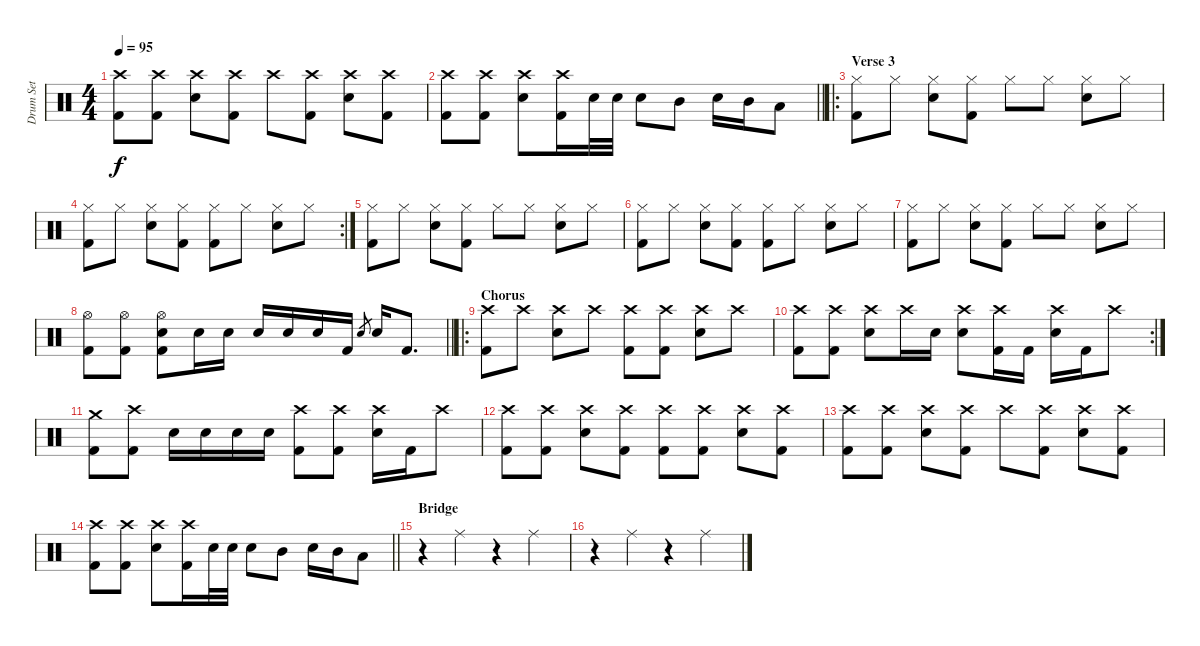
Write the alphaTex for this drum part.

\track ("Drum Set" "Drum Set") {instrument percussion}
\staff {score}
\articulation defaults
\ts (4 4)
\tempo 95
\clef neutral
\ks c
("Crash high (hit)" "Kick (hit) 2").8{dy f} ("Crash high (hit)" "Kick (hit) 2").8 ("Crash high (hit)" "Snare (hit) 2").8 ("Crash high (hit)" "Kick (hit) 2").8 "Crash high (hit)".8 ("Crash high (hit)" "Kick (hit) 2").8 ("Crash high (hit)" "Snare (hit) 2").8 ("Crash high (hit)" "Kick (hit) 2").8 |
\barLineRight lightlight
("Crash high (hit)" "Kick (hit) 2").8 ("Crash high (hit)" "Kick (hit) 2").8 ("Crash high (hit)" "Snare (hit) 2").8 ("Crash high (hit)" "Kick (hit) 2").16 "Snare (hit) 2".32 "Snare (hit) 2".32 "Snare (hit) 2".8 "Mid Tom (hit)".8 "Snare (hit) 2".16 "Mid Tom (hit)".16 "Low Tom (hit)".8 |
\ro
\section ("" "Verse 3")
("Hi-Hat (closed)" "Kick (hit) 2").8 "Hi-Hat (closed)".8 ("Hi-Hat (closed)" "Snare (hit) 2").8 ("Hi-Hat (closed)" "Kick (hit) 2").8 "Hi-Hat (closed)".8 "Hi-Hat (closed)".8 ("Hi-Hat (closed)" "Snare (hit) 2").8 "Hi-Hat (closed)".8 |
\rc 2
("Hi-Hat (closed)" "Kick (hit) 2").8 "Hi-Hat (closed)".8 ("Hi-Hat (closed)" "Snare (hit) 2").8 ("Hi-Hat (closed)" "Kick (hit) 2").8 ("Hi-Hat (closed)" "Kick (hit) 2").8 "Hi-Hat (closed)".8 ("Hi-Hat (closed)" "Snare (hit) 2").8 "Hi-Hat (closed)".8 |
("Hi-Hat (closed)" "Kick (hit) 2").8 "Hi-Hat (closed)".8 ("Hi-Hat (closed)" "Snare (hit) 2").8 ("Hi-Hat (closed)" "Kick (hit) 2").8 "Hi-Hat (closed)".8 "Hi-Hat (closed)".8 ("Hi-Hat (closed)" "Snare (hit) 2").8 "Hi-Hat (closed)".8 |
("Hi-Hat (closed)" "Kick (hit) 2").8 "Hi-Hat (closed)".8 ("Hi-Hat (closed)" "Snare (hit) 2").8 ("Hi-Hat (closed)" "Kick (hit) 2").8 ("Hi-Hat (closed)" "Kick (hit) 2").8 "Hi-Hat (closed)".8 ("Hi-Hat (closed)" "Snare (hit) 2").8 "Hi-Hat (closed)".8 |
("Hi-Hat (closed)" "Kick (hit) 2").8 "Hi-Hat (closed)".8 ("Hi-Hat (closed)" "Snare (hit) 2").8 ("Hi-Hat (closed)" "Kick (hit) 2").8 "Hi-Hat (closed)".8 "Hi-Hat (closed)".8 ("Hi-Hat (closed)" "Snare (hit) 2").8 "Hi-Hat (closed)".8 |
\barLineRight lightlight
("Hi-Hat (open)" "Kick (hit) 2").8 ("Hi-Hat (open)" "Kick (hit) 2").8 ("Hi-Hat (open)" "Snare (hit) 2" "Kick (hit) 2").8 "Snare (hit) 2".16 "Snare (hit) 2".16 "Snare (hit) 2".16 "Snare (hit) 2".16 "Snare (hit) 2".16 "Kick (hit) 2".16 "Snare (hit) 2".8{gr} "Snare (hit) 2".16 "Kick (hit) 2".8{d} |
\ro
\section ("" "Chorus")
("Crash high (hit)" "Kick (hit) 2").8 "Crash high (hit)".8 ("Crash high (hit)" "Snare (hit) 2").8 "Crash high (hit)".8 ("Crash high (hit)" "Kick (hit) 2").8 ("Crash high (hit)" "Kick (hit) 2").8 ("Crash high (hit)" "Snare (hit) 2").8 "Crash high (hit)".8 |
\rc 2
("Crash high (hit)" "Kick (hit) 2").8 ("Crash high (hit)" "Kick (hit) 2").8 ("Crash high (hit)" "Snare (hit) 2").8 "Crash high (hit)".16 "Snare (hit) 2".16 ("Crash high (hit)" "Snare (hit) 2").8 ("Crash high (hit)" "Kick (hit) 2").16 "Kick (hit) 2".16 ("Crash high (hit)" "Snare (hit) 2").16 "Kick (hit) 2".16 "Crash high (hit)".8 |
("Crash medium (hit)" "Kick (hit) 2").8 ("Crash high (hit)" "Kick (hit) 2").8 "Snare (hit) 2".16 "Snare (hit) 2".16 "Snare (hit) 2".16 "Snare (hit) 2".16 ("Crash high (hit)" "Kick (hit) 2").8 ("Crash high (hit)" "Kick (hit) 2").8 ("Crash high (hit)" "Snare (hit) 2").16 "Kick (hit) 2".16 "Crash high (hit)".8 |
("Crash high (hit)" "Kick (hit) 2").8 ("Crash high (hit)" "Kick (hit) 2").8 ("Crash high (hit)" "Snare (hit) 2").8 ("Crash high (hit)" "Kick (hit) 2").8 ("Crash high (hit)" "Kick (hit) 2").8 ("Crash high (hit)" "Kick (hit) 2").8 ("Crash high (hit)" "Snare (hit) 2").8 ("Crash high (hit)" "Kick (hit) 2").8 |
("Crash high (hit)" "Kick (hit) 2").8 ("Crash high (hit)" "Kick (hit) 2").8 ("Crash high (hit)" "Snare (hit) 2").8 ("Crash high (hit)" "Kick (hit) 2").8 "Crash high (hit)".8 ("Crash high (hit)" "Kick (hit) 2").8 ("Crash high (hit)" "Snare (hit) 2").8 ("Crash high (hit)" "Kick (hit) 2").8 |
\barLineRight lightlight
("Crash high (hit)" "Kick (hit) 2").8 ("Crash high (hit)" "Kick (hit) 2").8 ("Crash high (hit)" "Snare (hit) 2").8 ("Crash high (hit)" "Kick (hit) 2").16 "Snare (hit) 2".32 "Snare (hit) 2".32 "Snare (hit) 2".8 "Mid Tom (hit)".8 "Snare (hit) 2".16 "Mid Tom (hit)".16 "Low Tom (hit)".8 |
\section ("" "Bridge")
r.4 "Ride (middle)".4 r.4 "Ride (middle)".4 |
r.4 "Ride (middle)".4 r.4 "Ride (middle)".4
